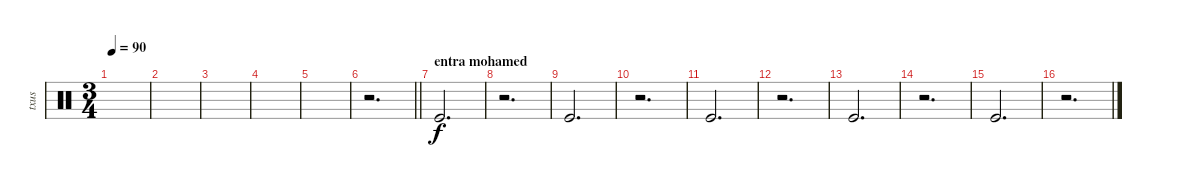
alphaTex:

\track ("txus" "txus") {instrument percussion}
\staff {score}
\articulation defaults
\ts (3 4)
\tempo 90
\clef neutral
\ks c
|
|
|
|
|
\barLineRight lightlight
r.2{d} |
\section ("" "entra mohamed")
"Kick (hit)".2{d} |
r.2{d} |
"Kick (hit)".2{d} |
r.2{d} |
"Kick (hit)".2{d} |
r.2{d} |
"Kick (hit)".2{d} |
r.2{d} |
"Kick (hit)".2{d} |
r.2{d}
